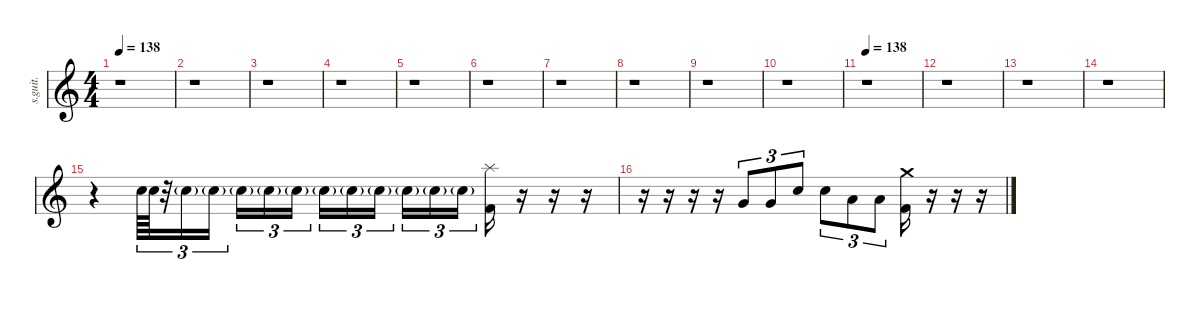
\defaultSystemsLayout 4
\hideDynamics
\bracketExtendMode nobrackets
\track ("Drumkit" "s.guit.") {instrument percussion}
\staff {score}
\articulation defaults
\ts (4 4)
\tempo 138
\clef g2
\ks c
r.1{dy f} |
r.1 |
r.1 |
r.1 |
r.1 |
r.1 |
r.1 |
r.1 |
r.1 |
r.1 |
\tempo 138
r.1 |
r.1 |
r.1 |
r.1 |
r.4 "Electric Snare (hit)".64{tu (3 2) lyrics (0 "") lyrics (1 "") lyrics (2 "") lyrics (3 "") lyrics (4 "")} "Electric Snare (hit)".64{tu (3 2) lyrics (0 "") lyrics (1 "") lyrics (2 "") lyrics (3 "") lyrics (4 "")} r.32{tu (3 2)} "Electric Snare (hit)"{g}.16{tu (3 2) lyrics (0 "") lyrics (1 "") lyrics (2 "") lyrics (3 "") lyrics (4 "") dy mp} "Electric Snare (hit)"{g}.16{tu (3 2) lyrics (0 "") lyrics (1 "") lyrics (2 "") lyrics (3 "") lyrics (4 "")} "Electric Snare (hit)"{g}.16{tu (3 2) lyrics (0 "") lyrics (1 "") lyrics (2 "") lyrics (3 "") lyrics (4 "")} "Electric Snare (hit)"{g}.16{tu (3 2) lyrics (0 "") lyrics (1 "") lyrics (2 "") lyrics (3 "") lyrics (4 "")} "Electric Snare (hit)"{g}.16{tu (3 2) lyrics (0 "") lyrics (1 "") lyrics (2 "") lyrics (3 "") lyrics (4 "")} "Electric Snare (hit)"{g}.16{tu (3 2) lyrics (0 "") lyrics (1 "") lyrics (2 "") lyrics (3 "") lyrics (4 "")} "Electric Snare (hit)"{g}.16{tu (3 2) lyrics (0 "") lyrics (1 "") lyrics (2 "") lyrics (3 "") lyrics (4 "")} "Electric Snare (hit)"{g}.16{tu (3 2) lyrics (0 "") lyrics (1 "") lyrics (2 "") lyrics (3 "") lyrics (4 "")} "Electric Snare (hit)"{g}.16{tu (3 2) lyrics (0 "") lyrics (1 "") lyrics (2 "") lyrics (3 "") lyrics (4 "")} "Electric Snare (hit)"{g}.16{tu (3 2) lyrics (0 "") lyrics (1 "") lyrics (2 "") lyrics (3 "") lyrics (4 "")} "Electric Snare (hit)"{g}.16{tu (3 2) lyrics (0 "") lyrics (1 "") lyrics (2 "") lyrics (3 "") lyrics (4 "")} ("Splash (hit)" "Kick (hit) 2").16{lyrics (0 "") lyrics (1 "") lyrics (2 "") lyrics (3 "") lyrics (4 "") dy f} r.16 r.16 r.16 |
r.16 r.16 r.16 r.16 "Very Low Tom (hit)".8{tu (3 2) lyrics (0 "") lyrics (1 "") lyrics (2 "") lyrics (3 "") lyrics (4 "")} "Very Low Tom (hit)".8{tu (3 2) lyrics (0 "") lyrics (1 "") lyrics (2 "") lyrics (3 "") lyrics (4 "")} "Electric Snare (hit)".8{tu (3 2) lyrics (0 "") lyrics (1 "") lyrics (2 "") lyrics (3 "") lyrics (4 "")} "Electric Snare (hit)".8{tu (3 2) lyrics (0 "") lyrics (1 "") lyrics (2 "") lyrics (3 "") lyrics (4 "")} "Low Tom (hit)".8{tu (3 2) lyrics (0 "") lyrics (1 "") lyrics (2 "") lyrics (3 "") lyrics (4 "")} "Low Floor Tom (hit)".8{tu (3 2) lyrics (0 "") lyrics (1 "") lyrics (2 "") lyrics (3 "") lyrics (4 "")} ("Crash medium (hit)" "Kick (hit) 2").16{lyrics (0 "") lyrics (1 "") lyrics (2 "") lyrics (3 "") lyrics (4 "")} r.16 r.16 r.16
